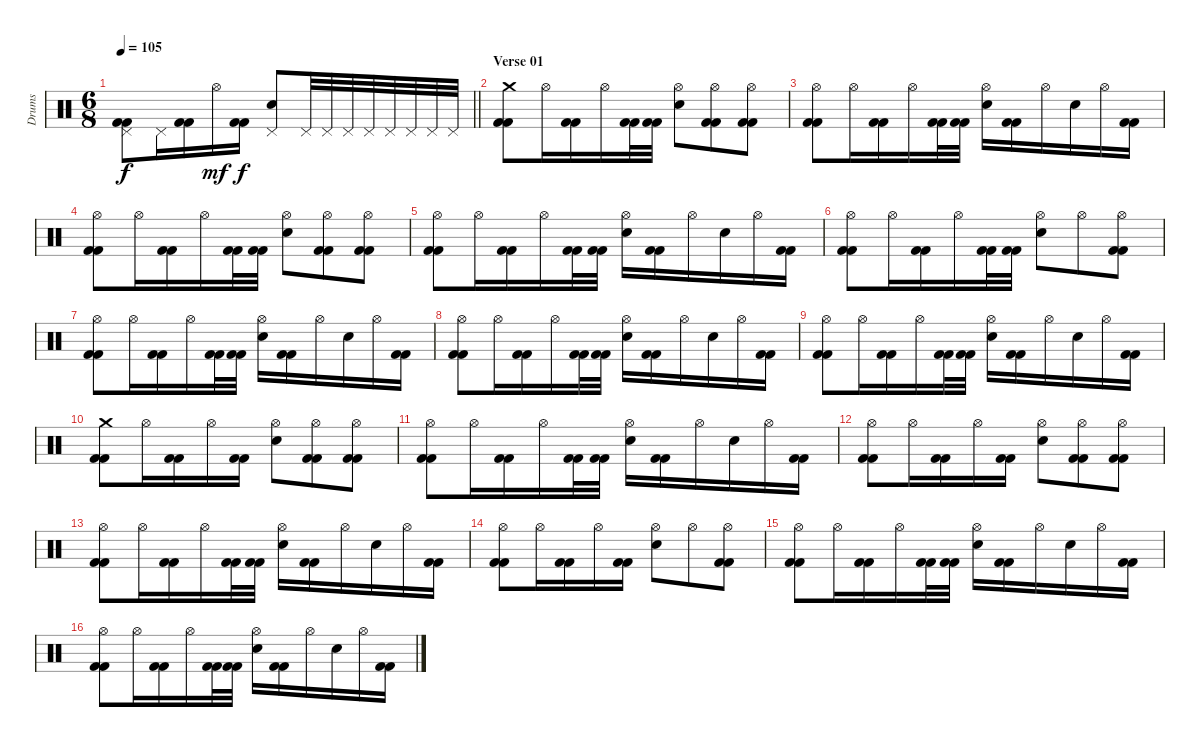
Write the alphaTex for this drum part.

\track ("Drums" "Drums") {instrument percussion}
\staff {score}
\articulation defaults
\ts (6 8)
\tempo 105
\clef neutral
\barLineRight lightlight
\ks c
("Pedal Hi-Hat (hit)" "Kick (hit) 2" "Kick (hit) 2").8{dy f} "Pedal Hi-Hat (hit)".16 ("Kick (hit) 2" "Kick (hit) 2").16 "Hi-Hat (open)".16{dy mf} ("Kick (hit) 2" "Kick (hit) 2").16{dy f} ("Pedal Hi-Hat (hit)" "Electric Snare (hit)").8 "Pedal Hi-Hat (hit)".32 "Pedal Hi-Hat (hit)".32 "Pedal Hi-Hat (hit)".32 "Pedal Hi-Hat (hit)".32 "Pedal Hi-Hat (hit)".32 "Pedal Hi-Hat (hit)".32 "Pedal Hi-Hat (hit)".32 "Pedal Hi-Hat (hit)".32 |
\section ("" "Verse 01")
("Crash medium (hit)" "Kick (hit) 2" "Kick (hit) 2").8 "Hi-Hat (open)".16 ("Kick (hit) 2" "Kick (hit) 2").16 "Hi-Hat (open)".16 ("Kick (hit) 2" "Kick (hit) 2").32 ("Kick (hit) 2" "Kick (hit) 2").32 ("Hi-Hat (open)" "Electric Snare (hit)").8 ("Hi-Hat (open)" "Kick (hit) 2" "Kick (hit) 2").8 ("Hi-Hat (open)" "Kick (hit) 2" "Kick (hit) 2").8 |
("Hi-Hat (open)" "Kick (hit) 2" "Kick (hit) 2").8 "Hi-Hat (open)".16 ("Kick (hit) 2" "Kick (hit) 2").16 "Hi-Hat (open)".16 ("Kick (hit) 2" "Kick (hit) 2").32 ("Kick (hit) 2" "Kick (hit) 2").32 ("Hi-Hat (open)" "Electric Snare (hit)").16 ("Kick (hit) 2" "Kick (hit) 2").16 "Hi-Hat (open)".16 "Electric Snare (hit)".16 "Hi-Hat (open)".16 ("Kick (hit) 2" "Kick (hit) 2").16 |
("Hi-Hat (open)" "Kick (hit) 2" "Kick (hit) 2").8 "Hi-Hat (open)".16 ("Kick (hit) 2" "Kick (hit) 2").16 "Hi-Hat (open)".16 ("Kick (hit) 2" "Kick (hit) 2").32 ("Kick (hit) 2" "Kick (hit) 2").32 ("Hi-Hat (open)" "Electric Snare (hit)").8 ("Hi-Hat (open)" "Kick (hit) 2" "Kick (hit) 2").8 ("Hi-Hat (open)" "Kick (hit) 2" "Kick (hit) 2").8 |
("Hi-Hat (open)" "Kick (hit) 2" "Kick (hit) 2").8 "Hi-Hat (open)".16 ("Kick (hit) 2" "Kick (hit) 2").16 "Hi-Hat (open)".16 ("Kick (hit) 2" "Kick (hit) 2").32 ("Kick (hit) 2" "Kick (hit) 2").32 ("Hi-Hat (open)" "Electric Snare (hit)").16 ("Kick (hit) 2" "Kick (hit) 2").16 "Hi-Hat (open)".16 "Electric Snare (hit)".16 "Hi-Hat (open)".16 ("Kick (hit) 2" "Kick (hit) 2").16 |
("Hi-Hat (open)" "Kick (hit) 2" "Kick (hit) 2").8 "Hi-Hat (open)".16 ("Kick (hit) 2" "Kick (hit) 2").16 "Hi-Hat (open)".16 ("Kick (hit) 2" "Kick (hit) 2").32 ("Kick (hit) 2" "Kick (hit) 2").32 ("Hi-Hat (open)" "Electric Snare (hit)").8 "Hi-Hat (open)".8 ("Hi-Hat (open)" "Kick (hit) 2" "Kick (hit) 2").8 |
("Hi-Hat (open)" "Kick (hit) 2" "Kick (hit) 2").8 "Hi-Hat (open)".16 ("Kick (hit) 2" "Kick (hit) 2").16 "Hi-Hat (open)".16 ("Kick (hit) 2" "Kick (hit) 2").32 ("Kick (hit) 2" "Kick (hit) 2").32 ("Hi-Hat (open)" "Electric Snare (hit)").16 ("Kick (hit) 2" "Kick (hit) 2").16 "Hi-Hat (open)".16 "Electric Snare (hit)".16 "Hi-Hat (open)".16 ("Kick (hit) 2" "Kick (hit) 2").16 |
("Hi-Hat (open)" "Kick (hit) 2" "Kick (hit) 2").8 "Hi-Hat (open)".16 ("Kick (hit) 2" "Kick (hit) 2").16 "Hi-Hat (open)".16 ("Kick (hit) 2" "Kick (hit) 2").32 ("Kick (hit) 2" "Kick (hit) 2").32 ("Hi-Hat (open)" "Electric Snare (hit)").16 ("Kick (hit) 2" "Kick (hit) 2").16 "Hi-Hat (open)".16 "Electric Snare (hit)".16 "Hi-Hat (open)".16 ("Kick (hit) 2" "Kick (hit) 2").16 |
("Hi-Hat (open)" "Kick (hit) 2" "Kick (hit) 2").8 "Hi-Hat (open)".16 ("Kick (hit) 2" "Kick (hit) 2").16 "Hi-Hat (open)".16 ("Kick (hit) 2" "Kick (hit) 2").32 ("Kick (hit) 2" "Kick (hit) 2").32 ("Hi-Hat (open)" "Electric Snare (hit)").16 ("Kick (hit) 2" "Kick (hit) 2").16 "Hi-Hat (open)".16 "Electric Snare (hit)".16 "Hi-Hat (open)".16 ("Kick (hit) 2" "Kick (hit) 2").16 |
("Crash medium (hit)" "Kick (hit) 2" "Kick (hit) 2").8 "Hi-Hat (open)".16 ("Kick (hit) 2" "Kick (hit) 2").16 "Hi-Hat (open)".16 ("Kick (hit) 2" "Kick (hit) 2").16 ("Hi-Hat (open)" "Electric Snare (hit)").8 ("Hi-Hat (open)" "Kick (hit) 2" "Kick (hit) 2").8 ("Hi-Hat (open)" "Kick (hit) 2" "Kick (hit) 2").8 |
("Hi-Hat (open)" "Kick (hit) 2" "Kick (hit) 2").8 "Hi-Hat (open)".16 ("Kick (hit) 2" "Kick (hit) 2").16 "Hi-Hat (open)".16 ("Kick (hit) 2" "Kick (hit) 2").32 ("Kick (hit) 2" "Kick (hit) 2").32 ("Hi-Hat (open)" "Electric Snare (hit)").16 ("Kick (hit) 2" "Kick (hit) 2").16 "Hi-Hat (open)".16 "Electric Snare (hit)".16 "Hi-Hat (open)".16 ("Kick (hit) 2" "Kick (hit) 2").16 |
("Hi-Hat (open)" "Kick (hit) 2" "Kick (hit) 2").8 "Hi-Hat (open)".16 ("Kick (hit) 2" "Kick (hit) 2").16 "Hi-Hat (open)".16 ("Kick (hit) 2" "Kick (hit) 2").16 ("Hi-Hat (open)" "Electric Snare (hit)").8 ("Hi-Hat (open)" "Kick (hit) 2" "Kick (hit) 2").8 ("Hi-Hat (open)" "Kick (hit) 2" "Kick (hit) 2").8 |
("Hi-Hat (open)" "Kick (hit) 2" "Kick (hit) 2").8 "Hi-Hat (open)".16 ("Kick (hit) 2" "Kick (hit) 2").16 "Hi-Hat (open)".16 ("Kick (hit) 2" "Kick (hit) 2").32 ("Kick (hit) 2" "Kick (hit) 2").32 ("Hi-Hat (open)" "Electric Snare (hit)").16 ("Kick (hit) 2" "Kick (hit) 2").16 "Hi-Hat (open)".16 "Electric Snare (hit)".16 "Hi-Hat (open)".16 ("Kick (hit) 2" "Kick (hit) 2").16 |
("Hi-Hat (open)" "Kick (hit) 2" "Kick (hit) 2").8 "Hi-Hat (open)".16 ("Kick (hit) 2" "Kick (hit) 2").16 "Hi-Hat (open)".16 ("Kick (hit) 2" "Kick (hit) 2").16 ("Hi-Hat (open)" "Electric Snare (hit)").8 "Hi-Hat (open)".8 ("Hi-Hat (open)" "Kick (hit) 2" "Kick (hit) 2").8 |
("Hi-Hat (open)" "Kick (hit) 2" "Kick (hit) 2").8 "Hi-Hat (open)".16 ("Kick (hit) 2" "Kick (hit) 2").16 "Hi-Hat (open)".16 ("Kick (hit) 2" "Kick (hit) 2").32 ("Kick (hit) 2" "Kick (hit) 2").32 ("Hi-Hat (open)" "Electric Snare (hit)").16 ("Kick (hit) 2" "Kick (hit) 2").16 "Hi-Hat (open)".16 "Electric Snare (hit)".16 "Hi-Hat (open)".16 ("Kick (hit) 2" "Kick (hit) 2").16 |
("Hi-Hat (open)" "Kick (hit) 2" "Kick (hit) 2").8 "Hi-Hat (open)".16 ("Kick (hit) 2" "Kick (hit) 2").16 "Hi-Hat (open)".16 ("Kick (hit) 2" "Kick (hit) 2").32 ("Kick (hit) 2" "Kick (hit) 2").32 ("Hi-Hat (open)" "Electric Snare (hit)").16 ("Kick (hit) 2" "Kick (hit) 2").16 "Hi-Hat (open)".16 "Electric Snare (hit)".16 "Hi-Hat (open)".16 ("Kick (hit) 2" "Kick (hit) 2").16
